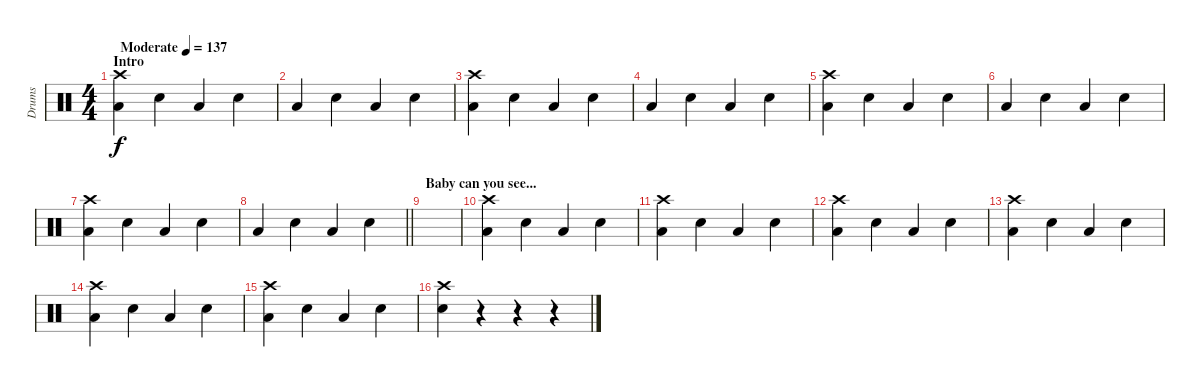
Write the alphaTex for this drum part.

\track ("Drums" "Drums") {instrument percussion}
\staff {score}
\articulation defaults
\ts (4 4)
\section ("" "Intro")
\tempo (137 "Moderate")
\clef neutral
\ks c
("Crash high (hit)" "Low Floor Tom (hit)").4{dy f} "Electric Snare (hit)".4 "Low Floor Tom (hit)".4 "Electric Snare (hit)".4 |
"Low Floor Tom (hit)".4 "Electric Snare (hit)".4 "Low Floor Tom (hit)".4 "Electric Snare (hit)".4 |
("Crash high (hit)" "Low Floor Tom (hit)").4 "Electric Snare (hit)".4 "Low Floor Tom (hit)".4 "Electric Snare (hit)".4 |
"Low Floor Tom (hit)".4 "Electric Snare (hit)".4 "Low Floor Tom (hit)".4 "Electric Snare (hit)".4 |
("Crash high (hit)" "Low Floor Tom (hit)").4 "Electric Snare (hit)".4 "Low Floor Tom (hit)".4 "Electric Snare (hit)".4 |
"Low Floor Tom (hit)".4 "Electric Snare (hit)".4 "Low Floor Tom (hit)".4 "Electric Snare (hit)".4 |
("Crash high (hit)" "Low Floor Tom (hit)").4 "Electric Snare (hit)".4 "Low Floor Tom (hit)".4 "Electric Snare (hit)".4 |
\barLineRight lightlight "Low Floor Tom (hit)".4 "Electric Snare (hit)".4 "Low Floor Tom (hit)".4 "Electric Snare (hit)".4
|
\section ("" "Baby can you see...")
|
("Crash high (hit)" "Low Floor Tom (hit)").4 "Electric Snare (hit)".4 "Low Floor Tom (hit)".4 "Electric Snare (hit)".4 |
("Crash high (hit)" "Low Floor Tom (hit)").4 "Electric Snare (hit)".4 "Low Floor Tom (hit)".4 "Electric Snare (hit)".4 |
("Crash high (hit)" "Low Floor Tom (hit)").4 "Electric Snare (hit)".4 "Low Floor Tom (hit)".4 "Electric Snare (hit)".4 |
("Crash high (hit)" "Low Floor Tom (hit)").4 "Electric Snare (hit)".4 "Low Floor Tom (hit)".4 "Electric Snare (hit)".4 |
("Crash high (hit)" "Low Floor Tom (hit)").4 "Electric Snare (hit)".4 "Low Floor Tom (hit)".4 "Electric Snare (hit)".4 |
("Crash high (hit)" "Low Floor Tom (hit)").4 "Electric Snare (hit)".4 "Low Floor Tom (hit)".4 "Electric Snare (hit)".4 |
("Electric Snare (hit)" "Crash high (hit)").4 r.4 r.4 r.4
